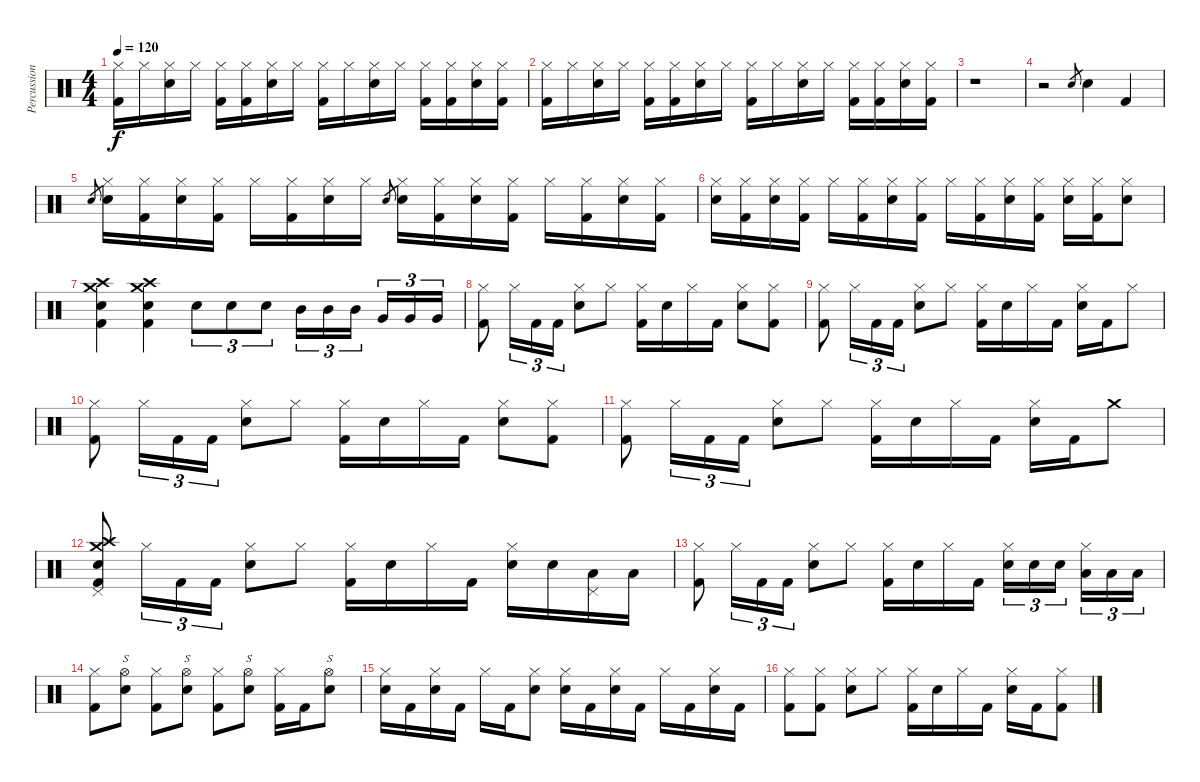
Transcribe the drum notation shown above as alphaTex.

\track ("Percussion" "Percussion") {instrument percussion}
\staff {score}
\articulation defaults
\ts (4 4)
\tempo 120
\clef neutral
\ks c
("Hi-Hat (closed)" "Kick (hit) 2").16{dy f} "Hi-Hat (closed)".16 ("Hi-Hat (closed)" "Snare (hit) 2").16 "Hi-Hat (closed)".16 ("Hi-Hat (closed)" "Kick (hit) 2").16 ("Hi-Hat (closed)" "Kick (hit) 2").16 ("Hi-Hat (closed)" "Snare (hit) 2").16 "Hi-Hat (closed)".16 ("Hi-Hat (closed)" "Kick (hit) 2").16 "Hi-Hat (closed)".16 ("Hi-Hat (closed)" "Snare (hit) 2").16 "Hi-Hat (closed)".16 ("Hi-Hat (closed)" "Kick (hit) 2").16 ("Hi-Hat (closed)" "Kick (hit) 2").16 ("Hi-Hat (closed)" "Snare (hit) 2").16 ("Hi-Hat (closed)" "Kick (hit) 2").16 |
("Hi-Hat (closed)" "Kick (hit) 2").16 "Hi-Hat (closed)".16 ("Hi-Hat (closed)" "Snare (hit) 2").16 "Hi-Hat (closed)".16 ("Hi-Hat (closed)" "Kick (hit) 2").16 ("Hi-Hat (closed)" "Kick (hit) 2").16 ("Hi-Hat (closed)" "Snare (hit) 2").16 "Hi-Hat (closed)".16 ("Hi-Hat (closed)" "Kick (hit) 2").16 "Hi-Hat (closed)".16 ("Hi-Hat (closed)" "Snare (hit) 2").16 "Hi-Hat (closed)".16 ("Hi-Hat (closed)" "Kick (hit) 2").16 ("Hi-Hat (closed)" "Kick (hit) 2").16 ("Hi-Hat (closed)" "Snare (hit) 2").16 ("Hi-Hat (closed)" "Kick (hit) 2").16 |
r.1 |
r.2 "Snare (hit) 2".8{gr} "Snare (hit) 2".4 "Kick (hit) 2".4 |
"Snare (hit) 2".8{gr} ("Hi-Hat (closed)" "Snare (hit) 2").16 ("Hi-Hat (closed)" "Kick (hit) 2").16 ("Hi-Hat (closed)" "Snare (hit) 2").16 ("Hi-Hat (closed)" "Kick (hit) 2").16 "Hi-Hat (closed)".16 ("Hi-Hat (closed)" "Kick (hit) 2").16 ("Hi-Hat (closed)" "Snare (hit) 2").16 "Hi-Hat (closed)".16 "Snare (hit) 2".8{gr} ("Hi-Hat (closed)" "Snare (hit) 2").16 ("Hi-Hat (closed)" "Kick (hit) 2").16 ("Hi-Hat (closed)" "Snare (hit) 2").16 ("Hi-Hat (closed)" "Kick (hit) 2").16 "Hi-Hat (closed)".16 ("Hi-Hat (closed)" "Kick (hit) 2").16 ("Hi-Hat (closed)" "Snare (hit) 2").16 ("Hi-Hat (closed)" "Kick (hit) 2").16 |
("Hi-Hat (closed)" "Snare (hit) 2").16 ("Hi-Hat (closed)" "Kick (hit) 2").16 ("Hi-Hat (closed)" "Snare (hit) 2").16 ("Hi-Hat (closed)" "Kick (hit) 2").16 "Hi-Hat (closed)".16 ("Hi-Hat (closed)" "Kick (hit) 2").16 ("Hi-Hat (closed)" "Snare (hit) 2").16 ("Hi-Hat (closed)" "Kick (hit) 2").16 "Hi-Hat (closed)".16 ("Hi-Hat (closed)" "Kick (hit) 2").16 ("Hi-Hat (closed)" "Snare (hit) 2").16 ("Hi-Hat (closed)" "Kick (hit) 2").16 ("Hi-Hat (closed)" "Snare (hit) 2").16 ("Hi-Hat (closed)" "Kick (hit) 2").16 ("Hi-Hat (closed)" "Snare (hit) 2").8 |
("Crash medium (hit)" "Crash high (hit)" "Snare (hit) 2" "Kick (hit) 2").4 ("Crash medium (hit)" "Crash high (hit)" "Snare (hit) 2" "Kick (hit) 2").4 "Snare (hit) 2".8{tu (3 2)} "Snare (hit) 2".8{tu (3 2)} "Snare (hit) 2".8{tu (3 2)} "Mid Tom (hit)".16{tu (3 2)} "Mid Tom (hit)".16{tu (3 2)} "Mid Tom (hit)".16{tu (3 2)} "Very Low Tom (hit)".16{tu (3 2)} "Very Low Tom (hit)".16{tu (3 2)} "Very Low Tom (hit)".16{tu (3 2)} |
("Hi-Hat (closed)" "Kick (hit) 2").8 "Hi-Hat (closed)".16{tu (3 2)} "Kick (hit) 2".16{tu (3 2)} "Kick (hit) 2".16{tu (3 2)} ("Hi-Hat (closed)" "Snare (hit) 2").8 "Hi-Hat (closed)".8 ("Hi-Hat (closed)" "Kick (hit) 2").16 "Snare (hit) 2".16 "Hi-Hat (closed)".16 "Kick (hit) 2".16 ("Hi-Hat (closed)" "Snare (hit) 2").8 ("Hi-Hat (closed)" "Kick (hit) 2").8 |
("Hi-Hat (closed)" "Kick (hit) 2").8 "Hi-Hat (closed)".16{tu (3 2)} "Kick (hit) 2".16{tu (3 2)} "Kick (hit) 2".16{tu (3 2)} ("Hi-Hat (closed)" "Snare (hit) 2").8 "Hi-Hat (closed)".8 ("Hi-Hat (closed)" "Kick (hit) 2").16 "Snare (hit) 2".16 "Hi-Hat (closed)".16 "Kick (hit) 2".16 ("Hi-Hat (closed)" "Snare (hit) 2").16 "Kick (hit) 2".16 "Hi-Hat (closed)".8 |
("Hi-Hat (closed)" "Kick (hit) 2").8 "Hi-Hat (closed)".16{tu (3 2)} "Kick (hit) 2".16{tu (3 2)} "Kick (hit) 2".16{tu (3 2)} ("Hi-Hat (closed)" "Snare (hit) 2").8 "Hi-Hat (closed)".8 ("Hi-Hat (closed)" "Kick (hit) 2").16 "Snare (hit) 2".16 "Hi-Hat (closed)".16 "Kick (hit) 2".16 ("Hi-Hat (closed)" "Snare (hit) 2").8 ("Hi-Hat (closed)" "Kick (hit) 2").8 |
("Hi-Hat (closed)" "Kick (hit) 2").8 "Hi-Hat (closed)".16{tu (3 2)} "Kick (hit) 2".16{tu (3 2)} "Kick (hit) 2".16{tu (3 2)} ("Hi-Hat (closed)" "Snare (hit) 2").8 "Hi-Hat (closed)".8 ("Hi-Hat (closed)" "Kick (hit) 2").16 "Snare (hit) 2".16 "Hi-Hat (closed)".16 "Kick (hit) 2".16 ("Hi-Hat (closed)" "Snare (hit) 2").16 "Kick (hit) 2".16 "Crash medium (hit)".8 |
("Crash high (hit)" "Crash medium (hit)" "Pedal Hi-Hat (hit)" "Snare (hit) 2" "Kick (hit) 2").8 "Hi-Hat (closed)".16{tu (3 2)} "Kick (hit) 2".16{tu (3 2)} "Kick (hit) 2".16{tu (3 2)} ("Hi-Hat (closed)" "Snare (hit) 2").8 "Hi-Hat (closed)".8 ("Hi-Hat (closed)" "Kick (hit) 2").16 "Snare (hit) 2".16 "Hi-Hat (closed)".16 "Kick (hit) 2".16 ("Hi-Hat (closed)" "Snare (hit) 2").16 "Snare (hit) 2".16 ("Pedal Hi-Hat (hit)" "Low Tom (hit)").16 "Low Tom (hit)".16 |
("Hi-Hat (closed)" "Kick (hit) 2").8 "Hi-Hat (closed)".16{tu (3 2)} "Kick (hit) 2".16{tu (3 2)} "Kick (hit) 2".16{tu (3 2)} ("Hi-Hat (closed)" "Snare (hit) 2").8 "Hi-Hat (closed)".8 ("Hi-Hat (closed)" "Kick (hit) 2").16 "Snare (hit) 2".16 "Hi-Hat (closed)".16 "Kick (hit) 2".16 ("Hi-Hat (closed)" "Snare (hit) 2").16{tu (3 2)} "Snare (hit) 2".16{tu (3 2)} "Snare (hit) 2".16{tu (3 2)} ("Hi-Hat (closed)" "Low Tom (hit)").16{tu (3 2)} "Low Tom (hit)".16{tu (3 2)} "Low Tom (hit)".16{tu (3 2)} |
("Hi-Hat (closed)" "Kick (hit) 2").8 ("Hi-Hat (open)" "Snare (hit) 2").8{s} ("Hi-Hat (closed)" "Kick (hit) 2").8 ("Hi-Hat (open)" "Snare (hit) 2").8{s} ("Hi-Hat (closed)" "Kick (hit) 2").8 ("Hi-Hat (open)" "Snare (hit) 2").8{s} ("Hi-Hat (closed)" "Kick (hit) 2").16 "Kick (hit) 2".16 ("Hi-Hat (open)" "Snare (hit) 2").8{s} |
("Hi-Hat (closed)" "Snare (hit) 2").16 "Kick (hit) 2".16 ("Hi-Hat (closed)" "Snare (hit) 2").16 "Kick (hit) 2".16 "Hi-Hat (closed)".16 "Kick (hit) 2".16 ("Hi-Hat (closed)" "Snare (hit) 2").8 ("Hi-Hat (closed)" "Snare (hit) 2").16 "Kick (hit) 2".16 ("Hi-Hat (closed)" "Snare (hit) 2").16 "Kick (hit) 2".16 "Hi-Hat (closed)".16 "Kick (hit) 2".16 ("Hi-Hat (closed)" "Snare (hit) 2").16 "Kick (hit) 2".16 |
("Hi-Hat (closed)" "Kick (hit) 2").8 ("Hi-Hat (closed)" "Kick (hit) 2").8 ("Hi-Hat (closed)" "Snare (hit) 2").8 "Hi-Hat (closed)".8 ("Hi-Hat (closed)" "Kick (hit) 2").16 "Snare (hit) 2".16 "Hi-Hat (closed)".16 "Kick (hit) 2".16 ("Hi-Hat (closed)" "Snare (hit) 2").16 "Kick (hit) 2".16 ("Hi-Hat (closed)" "Kick (hit) 2").8
